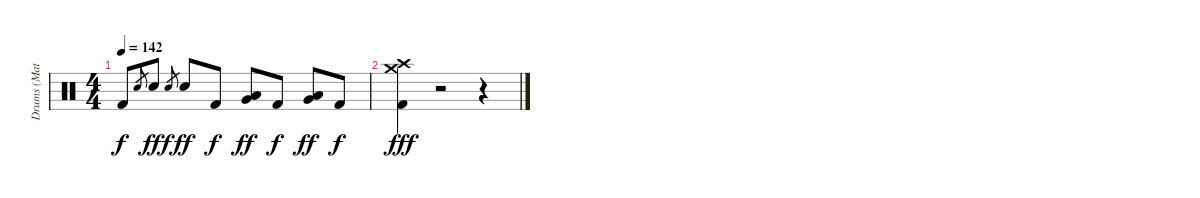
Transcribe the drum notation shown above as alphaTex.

\track ("Drums (Matt Sorum)" "Drums (Mat") {instrument percussion}
\staff {score}
\articulation defaults
\ts (4 4)
\tempo 142
\clef neutral
\ks c "Kick (hit) 2".8{dy f} "Snare (hit) 2".8{gr} "Snare (hit) 2".8{dy ff} "Snare (hit) 2".8{gr dy f} "Snare (hit) 2".8{dy ff} "Kick (hit) 2".8{dy f}
("Low Tom (hit)" "Very Low Tom (hit)").8{dy ff} "Kick (hit) 2".8{dy f} ("Low Floor Tom (hit)" "Very Low Tom (hit)").8{dy ff} "Kick (hit) 2".8{dy f} |
("Crash high (hit)" "Crash medium (hit)" "Kick (hit) 2").4{dy fff} r.2 r.4
